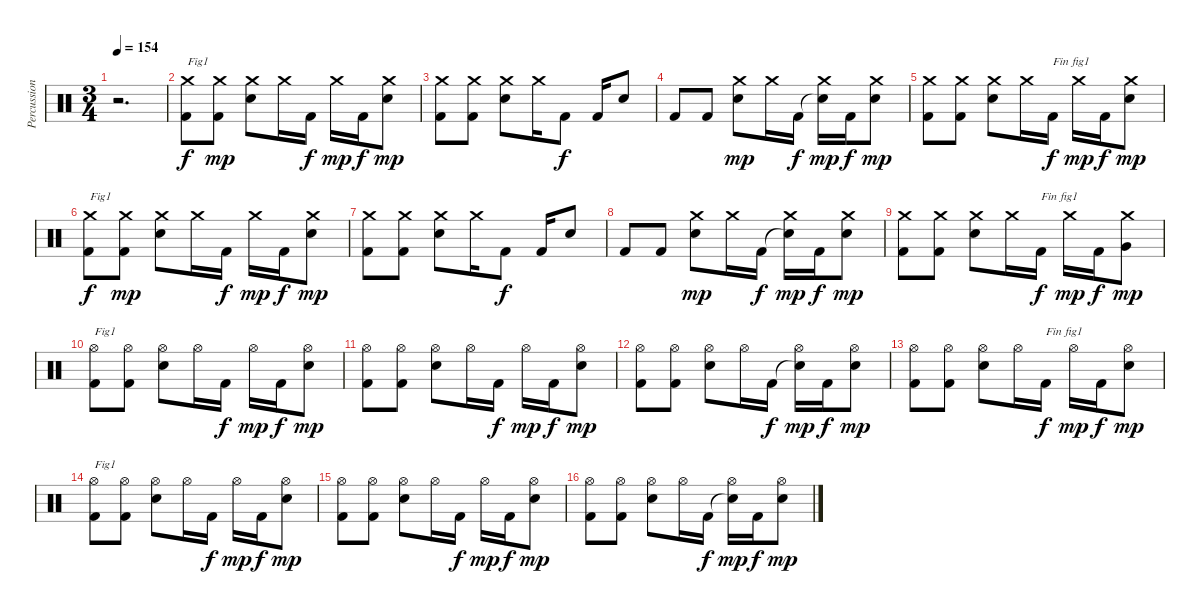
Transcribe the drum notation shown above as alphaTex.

\track ("Percussions" "Percussion") {instrument percussion}
\staff {score}
\articulation defaults
\ts (3 4)
\tempo 154
\clef neutral
\ks c
r.2{d dy f} |
("Kick (hit) 2" "Crash medium (hit)").8{txt "Fig1"} ("Kick (hit) 2" "Crash medium (hit)").8{dy mp} ("Electric Snare (hit)" "Crash medium (hit)").8 "Crash medium (hit)".16 "Kick (hit) 2".16{dy f} "Crash medium (hit)".16{dy mp} "Kick (hit) 2".16{dy f} ("Electric Snare (hit)" "Crash medium (hit)").8{dy mp} |
("Kick (hit) 2" "Crash medium (hit)").8 ("Kick (hit) 2" "Crash medium (hit)").8 ("Electric Snare (hit)" "Crash medium (hit)").8 "Crash medium (hit)".16 "Kick (hit) 2".8{dy f} "Kick (hit) 2".16 "Electric Snare (hit)".8 |
"Kick (hit) 2".8 "Kick (hit) 2".8 ("Electric Snare (hit)" "Crash medium (hit)").8{dy mp} "Crash medium (hit)".16 "Kick (hit) 2".16{dy f} ("Snare (hit)"{t} "Crash medium (hit)").16{dy mp} "Kick (hit) 2".16{dy f} ("Electric Snare (hit)" "Crash medium (hit)").8{dy mp} |
("Kick (hit) 2" "Crash medium (hit)").8 ("Kick (hit) 2" "Crash medium (hit)").8 ("Electric Snare (hit)" "Crash medium (hit)").8 "Crash medium (hit)".16 "Kick (hit) 2".16{txt "Fin fig1" dy f} "Crash medium (hit)".16{dy mp} "Kick (hit) 2".16{dy f} ("Electric Snare (hit)" "Crash medium (hit)").8{dy mp} |
("Kick (hit) 2" "Crash medium (hit)").8{txt "Fig1" dy f} ("Kick (hit) 2" "Crash medium (hit)").8{dy mp} ("Electric Snare (hit)" "Crash medium (hit)").8 "Crash medium (hit)".16 "Kick (hit) 2".16{dy f} "Crash medium (hit)".16{dy mp} "Kick (hit) 2".16{dy f} ("Electric Snare (hit)" "Crash medium (hit)").8{dy mp} |
("Kick (hit) 2" "Crash medium (hit)").8 ("Kick (hit) 2" "Crash medium (hit)").8 ("Electric Snare (hit)" "Crash medium (hit)").8 "Crash medium (hit)".16 "Kick (hit) 2".8{dy f} "Kick (hit) 2".16 "Electric Snare (hit)".8 |
"Kick (hit) 2".8 "Kick (hit) 2".8 ("Electric Snare (hit)" "Crash medium (hit)").8{dy mp} "Crash medium (hit)".16 "Kick (hit) 2".16{dy f} ("Snare (hit)"{t} "Crash medium (hit)").16{dy mp} "Kick (hit) 2".16{dy f} ("Electric Snare (hit)" "Crash medium (hit)").8{dy mp} |
("Kick (hit) 2" "Crash medium (hit)").8 ("Kick (hit) 2" "Crash medium (hit)").8 ("Electric Snare (hit)" "Crash medium (hit)").8 "Crash medium (hit)".16 "Kick (hit) 2".16{txt "Fin fig1" dy f} "Crash medium (hit)".16{dy mp} "Kick (hit) 2".16{dy f} ("Very Low Tom (hit)" "Crash medium (hit)").8{dy mp} |
("Kick (hit) 2" "Hi-Hat (open)").8{txt "Fig1"} ("Kick (hit) 2" "Hi-Hat (open)").8 ("Electric Snare (hit)" "Hi-Hat (open)").8 "Hi-Hat (open)".16 "Kick (hit) 2".16{dy f} "Hi-Hat (open)".16{dy mp} "Kick (hit) 2".16{dy f} ("Electric Snare (hit)" "Hi-Hat (open)").8{dy mp} |
("Kick (hit) 2" "Hi-Hat (open)").8 ("Kick (hit) 2" "Hi-Hat (open)").8 ("Electric Snare (hit)" "Hi-Hat (open)").8 "Hi-Hat (open)".16 "Kick (hit) 2".16{dy f} "Hi-Hat (open)".16{dy mp} "Kick (hit) 2".16{dy f} ("Electric Snare (hit)" "Hi-Hat (open)").8{dy mp} |
("Kick (hit) 2" "Hi-Hat (open)").8 ("Kick (hit) 2" "Hi-Hat (open)").8 ("Electric Snare (hit)" "Hi-Hat (open)").8 "Hi-Hat (open)".16 "Kick (hit) 2".16{dy f} ("Snare (hit)"{t} "Hi-Hat (open)").16{dy mp} "Kick (hit) 2".16{dy f} ("Electric Snare (hit)" "Hi-Hat (open)").8{dy mp} |
("Kick (hit) 2" "Hi-Hat (open)").8 ("Kick (hit) 2" "Hi-Hat (open)").8 ("Electric Snare (hit)" "Hi-Hat (open)").8 "Hi-Hat (open)".16 "Kick (hit) 2".16{txt "Fin fig1" dy f} "Hi-Hat (open)".16{dy mp} "Kick (hit) 2".16{dy f} ("Electric Snare (hit)" "Hi-Hat (open)").8{dy mp} |
("Kick (hit) 2" "Hi-Hat (open)").8{txt "Fig1"} ("Kick (hit) 2" "Hi-Hat (open)").8 ("Electric Snare (hit)" "Hi-Hat (open)").8 "Hi-Hat (open)".16 "Kick (hit) 2".16{dy f} "Hi-Hat (open)".16{dy mp} "Kick (hit) 2".16{dy f} ("Electric Snare (hit)" "Hi-Hat (open)").8{dy mp} |
("Kick (hit) 2" "Hi-Hat (open)").8 ("Kick (hit) 2" "Hi-Hat (open)").8 ("Electric Snare (hit)" "Hi-Hat (open)").8 "Hi-Hat (open)".16 "Kick (hit) 2".16{dy f} "Hi-Hat (open)".16{dy mp} "Kick (hit) 2".16{dy f} ("Electric Snare (hit)" "Hi-Hat (open)").8{dy mp} |
("Kick (hit) 2" "Hi-Hat (open)").8 ("Kick (hit) 2" "Hi-Hat (open)").8 ("Electric Snare (hit)" "Hi-Hat (open)").8 "Hi-Hat (open)".16 "Kick (hit) 2".16{dy f} ("Snare (hit)"{t} "Hi-Hat (open)").16{dy mp} "Kick (hit) 2".16{dy f} ("Electric Snare (hit)" "Hi-Hat (open)").8{dy mp}
